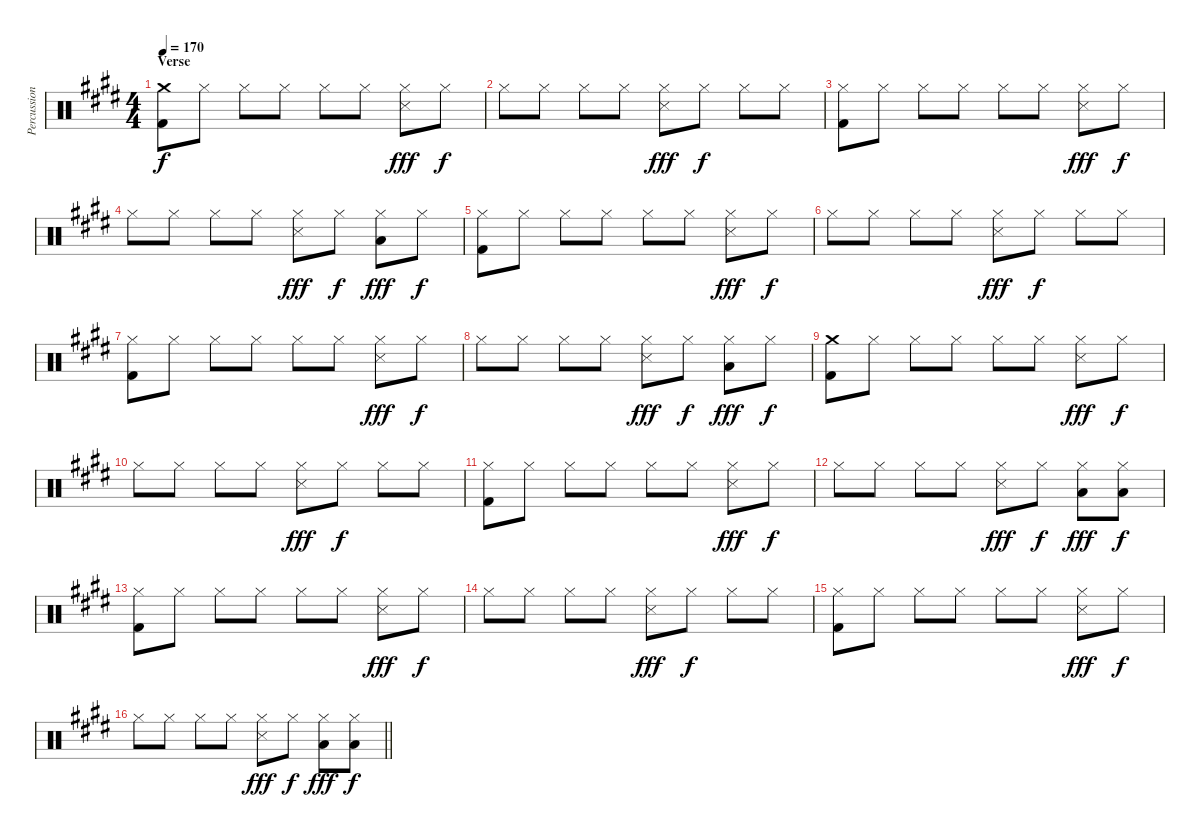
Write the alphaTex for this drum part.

\track ("Percussion" "Percussion") {instrument percussion}
\staff {score}
\articulation defaults
\ts (4 4)
\section ("" "Verse")
\tempo 170
\clef neutral
\ks c#minor
("Crash medium (hit)" "Kick (hit) 2").8{dy f} "Hi-Hat (closed)".8 "Hi-Hat (closed)".8 "Hi-Hat (closed)".8 "Hi-Hat (closed)".8 "Hi-Hat (closed)".8 ("Hi-Hat (closed)" "Metronome (hit)").8{dy fff} "Hi-Hat (closed)".8{dy f} |
"Hi-Hat (closed)".8 "Hi-Hat (closed)".8 "Hi-Hat (closed)".8 "Hi-Hat (closed)".8 ("Hi-Hat (closed)" "Metronome (hit)").8{dy fff} "Hi-Hat (closed)".8{dy f} "Hi-Hat (closed)".8 "Hi-Hat (closed)".8 |
("Hi-Hat (closed)" "Kick (hit) 2").8 "Hi-Hat (closed)".8 "Hi-Hat (closed)".8 "Hi-Hat (closed)".8 "Hi-Hat (closed)".8 "Hi-Hat (closed)".8 ("Hi-Hat (closed)" "Metronome (hit)").8{dy fff} "Hi-Hat (closed)".8{dy f} |
"Hi-Hat (closed)".8 "Hi-Hat (closed)".8 "Hi-Hat (closed)".8 "Hi-Hat (closed)".8 ("Hi-Hat (closed)" "Metronome (hit)").8{dy fff} "Hi-Hat (closed)".8{dy f} ("Hi-Hat (closed)" "Low Tom (hit)").8{dy fff} "Hi-Hat (closed)".8{dy f} |
("Hi-Hat (closed)" "Kick (hit) 2").8 "Hi-Hat (closed)".8 "Hi-Hat (closed)".8 "Hi-Hat (closed)".8 "Hi-Hat (closed)".8 "Hi-Hat (closed)".8 ("Hi-Hat (closed)" "Metronome (hit)").8{dy fff} "Hi-Hat (closed)".8{dy f} |
"Hi-Hat (closed)".8 "Hi-Hat (closed)".8 "Hi-Hat (closed)".8 "Hi-Hat (closed)".8 ("Hi-Hat (closed)" "Metronome (hit)").8{dy fff} "Hi-Hat (closed)".8{dy f} "Hi-Hat (closed)".8 "Hi-Hat (closed)".8 |
("Hi-Hat (closed)" "Kick (hit) 2").8 "Hi-Hat (closed)".8 "Hi-Hat (closed)".8 "Hi-Hat (closed)".8 "Hi-Hat (closed)".8 "Hi-Hat (closed)".8 ("Hi-Hat (closed)" "Metronome (hit)").8{dy fff} "Hi-Hat (closed)".8{dy f} |
"Hi-Hat (closed)".8 "Hi-Hat (closed)".8 "Hi-Hat (closed)".8 "Hi-Hat (closed)".8 ("Hi-Hat (closed)" "Metronome (hit)").8{dy fff} "Hi-Hat (closed)".8{dy f} ("Hi-Hat (closed)" "Low Tom (hit)").8{dy fff} "Hi-Hat (closed)".8{dy f} |
("Crash medium (hit)" "Kick (hit) 2").8 "Hi-Hat (closed)".8 "Hi-Hat (closed)".8 "Hi-Hat (closed)".8 "Hi-Hat (closed)".8 "Hi-Hat (closed)".8 ("Hi-Hat (closed)" "Metronome (hit)").8{dy fff} "Hi-Hat (closed)".8{dy f} |
"Hi-Hat (closed)".8 "Hi-Hat (closed)".8 "Hi-Hat (closed)".8 "Hi-Hat (closed)".8 ("Hi-Hat (closed)" "Metronome (hit)").8{dy fff} "Hi-Hat (closed)".8{dy f} "Hi-Hat (closed)".8 "Hi-Hat (closed)".8 |
("Hi-Hat (closed)" "Kick (hit) 2").8 "Hi-Hat (closed)".8 "Hi-Hat (closed)".8 "Hi-Hat (closed)".8 "Hi-Hat (closed)".8 "Hi-Hat (closed)".8 ("Hi-Hat (closed)" "Metronome (hit)").8{dy fff} "Hi-Hat (closed)".8{dy f} |
"Hi-Hat (closed)".8 "Hi-Hat (closed)".8 "Hi-Hat (closed)".8 "Hi-Hat (closed)".8 ("Hi-Hat (closed)" "Metronome (hit)").8{dy fff} "Hi-Hat (closed)".8{dy f} ("Hi-Hat (closed)" "Low Tom (hit)").8{dy fff} ("Hi-Hat (closed)" "Low Tom (hit)").8{dy f} |
("Hi-Hat (closed)" "Kick (hit) 2").8 "Hi-Hat (closed)".8 "Hi-Hat (closed)".8 "Hi-Hat (closed)".8 "Hi-Hat (closed)".8 "Hi-Hat (closed)".8 ("Hi-Hat (closed)" "Metronome (hit)").8{dy fff} "Hi-Hat (closed)".8{dy f} |
"Hi-Hat (closed)".8 "Hi-Hat (closed)".8 "Hi-Hat (closed)".8 "Hi-Hat (closed)".8 ("Hi-Hat (closed)" "Metronome (hit)").8{dy fff} "Hi-Hat (closed)".8{dy f} "Hi-Hat (closed)".8 "Hi-Hat (closed)".8 |
("Hi-Hat (closed)" "Kick (hit) 2").8 "Hi-Hat (closed)".8 "Hi-Hat (closed)".8 "Hi-Hat (closed)".8 "Hi-Hat (closed)".8 "Hi-Hat (closed)".8 ("Hi-Hat (closed)" "Metronome (hit)").8{dy fff} "Hi-Hat (closed)".8{dy f} |
\barLineRight lightlight "Hi-Hat (closed)".8 "Hi-Hat (closed)".8 "Hi-Hat (closed)".8 "Hi-Hat (closed)".8
("Hi-Hat (closed)" "Metronome (hit)").8{dy fff} "Hi-Hat (closed)".8{dy f} ("Hi-Hat (closed)" "Low Tom (hit)").8{dy fff} ("Hi-Hat (closed)" "Low Tom (hit)").8{dy f}
